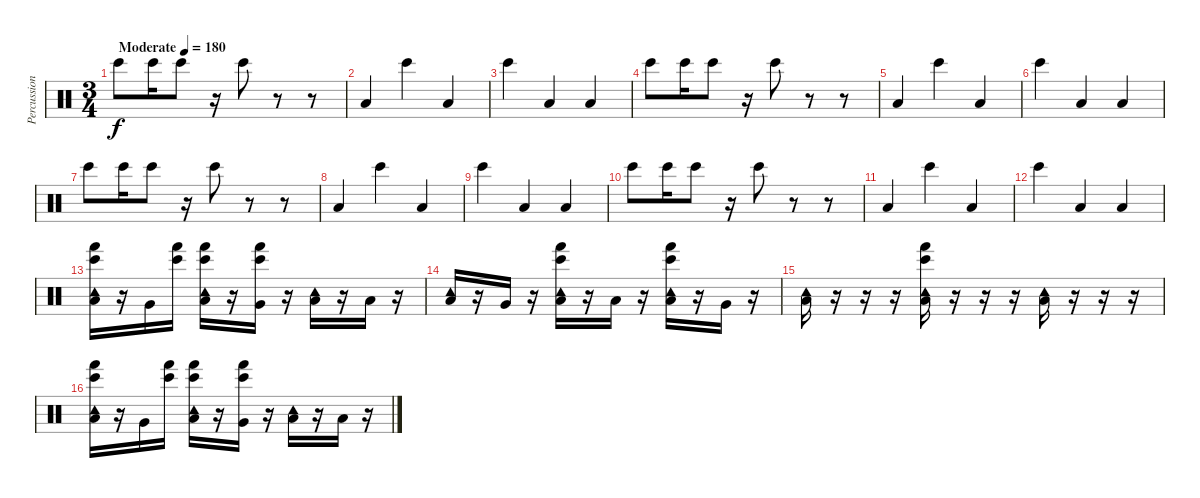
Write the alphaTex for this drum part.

\track ("Percussion" "Percussion") {instrument percussion}
\staff {score}
\articulation defaults
\ts (3 4)
\tempo (180 "Moderate")
\clef neutral
\ks c "Bongo High (hit)".8{dy f} "Bongo High (hit)".16 "Bongo High (hit)".8
r.16 "Bongo High (hit)".8 r.8 r.8 |
"Low Floor Tom (hit)".4 "Bongo High (hit)".4 "Low Floor Tom (hit)".4 |
"Bongo High (hit)".4 "Low Floor Tom (hit)".4 "Low Floor Tom (hit)".4 |
"Bongo High (hit)".8 "Bongo High (hit)".16 "Bongo High (hit)".8 r.16 "Bongo High (hit)".8 r.8 r.8 |
"Low Floor Tom (hit)".4 "Bongo High (hit)".4 "Low Floor Tom (hit)".4 |
"Bongo High (hit)".4 "Low Floor Tom (hit)".4 "Low Floor Tom (hit)".4 |
"Bongo High (hit)".8 "Bongo High (hit)".16 "Bongo High (hit)".8 r.16 "Bongo High (hit)".8 r.8 r.8 |
"Low Floor Tom (hit)".4 "Bongo High (hit)".4 "Low Floor Tom (hit)".4 |
"Bongo High (hit)".4 "Low Floor Tom (hit)".4 "Low Floor Tom (hit)".4 |
"Bongo High (hit)".8 "Bongo High (hit)".16 "Bongo High (hit)".8 r.16 "Bongo High (hit)".8 r.8 r.8 |
"Low Floor Tom (hit)".4 "Bongo High (hit)".4 "Low Floor Tom (hit)".4 |
"Bongo High (hit)".4 "Low Floor Tom (hit)".4 "Low Floor Tom (hit)".4 |
("Tambourine (hit)" "Hand (hit)" "Bongo High (hit)" "Low Floor Tom (hit)").16 r.16 "Very Low Tom (hit)".16 ("Hand (hit)" "Bongo High (hit)").16 ("Tambourine (hit)" "Hand (hit)" "Bongo High (hit)" "Low Floor Tom (hit)").16 r.16 ("Hand (hit)" "Bongo High (hit)" "Very Low Tom (hit)").16 r.16 ("Tambourine (hit)" "Low Floor Tom (hit)").16 r.16 "Low Floor Tom (hit)".16 r.16 |
("Tambourine (hit)" "Low Floor Tom (hit)").16 r.16 "Very Low Tom (hit)".16 r.16 ("Tambourine (hit)" "Hand (hit)" "Bongo High (hit)" "Low Floor Tom (hit)").16 r.16 "Low Floor Tom (hit)".16 r.16 ("Tambourine (hit)" "Hand (hit)" "Bongo High (hit)" "Low Floor Tom (hit)").16 r.16 "Very Low Tom (hit)".16 r.16 |
("Tambourine (hit)" "Low Floor Tom (hit)").16 r.16 r.16 r.16 ("Tambourine (hit)" "Hand (hit)" "Bongo High (hit)" "Low Floor Tom (hit)").16 r.16 r.16 r.16 ("Tambourine (hit)" "Low Floor Tom (hit)").16 r.16 r.16 r.16 |
("Tambourine (hit)" "Hand (hit)" "Bongo High (hit)" "Low Floor Tom (hit)").16 r.16 "Very Low Tom (hit)".16 ("Hand (hit)" "Bongo High (hit)").16 ("Tambourine (hit)" "Hand (hit)" "Bongo High (hit)" "Low Floor Tom (hit)").16 r.16 ("Hand (hit)" "Bongo High (hit)" "Very Low Tom (hit)").16 r.16 ("Tambourine (hit)" "Low Floor Tom (hit)").16 r.16 "Low Floor Tom (hit)".16 r.16
